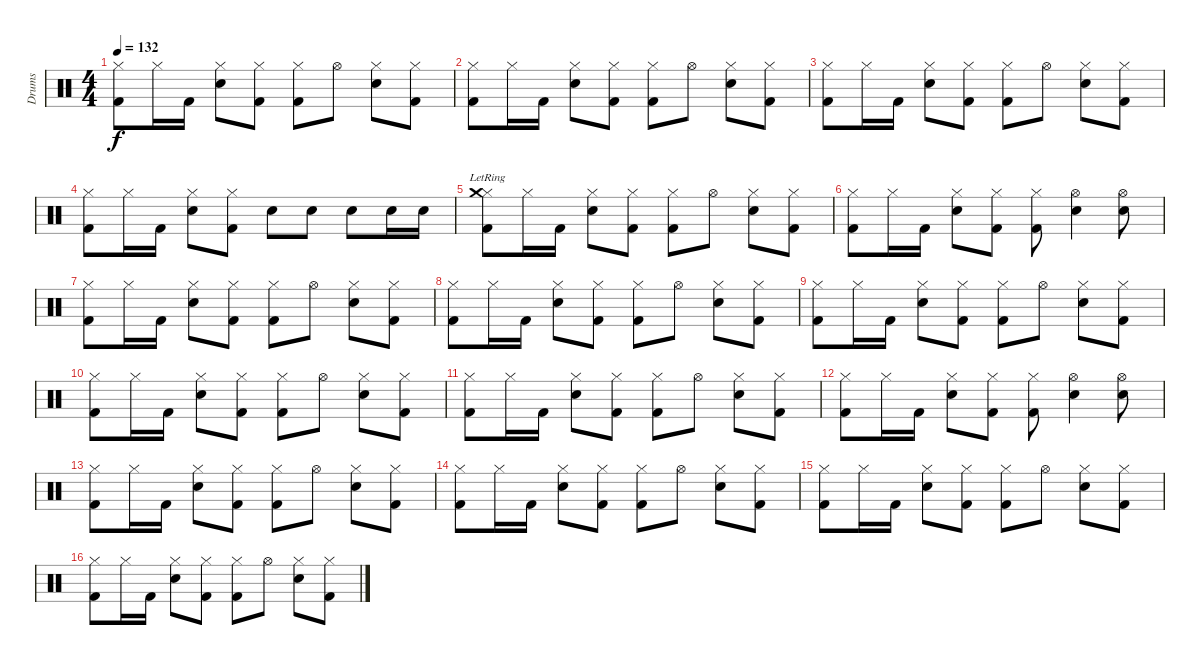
\track ("Drums" "Drums") {instrument percussion}
\staff {score}
\articulation defaults
\ts (4 4)
\tempo 132
\clef neutral
\ks c
("Kick (hit) 2" "Hi-Hat (closed)").8{dy f} "Hi-Hat (closed)".16 "Kick (hit) 2".16 ("Electric Snare (hit)" "Hi-Hat (closed)").8 ("Kick (hit) 2" "Hi-Hat (closed)").8 ("Kick (hit) 2" "Hi-Hat (closed)").8 "Hi-Hat (open)".8 ("Electric Snare (hit)" "Hi-Hat (closed)").8 ("Kick (hit) 2" "Hi-Hat (closed)").8 |
("Kick (hit) 2" "Hi-Hat (closed)").8 "Hi-Hat (closed)".16 "Kick (hit) 2".16 ("Electric Snare (hit)" "Hi-Hat (closed)").8 ("Kick (hit) 2" "Hi-Hat (closed)").8 ("Kick (hit) 2" "Hi-Hat (closed)").8 "Hi-Hat (open)".8 ("Electric Snare (hit)" "Hi-Hat (closed)").8 ("Kick (hit) 2" "Hi-Hat (closed)").8 |
("Kick (hit) 2" "Hi-Hat (closed)").8 "Hi-Hat (closed)".16 "Kick (hit) 2".16 ("Electric Snare (hit)" "Hi-Hat (closed)").8 ("Kick (hit) 2" "Hi-Hat (closed)").8 ("Kick (hit) 2" "Hi-Hat (closed)").8 "Hi-Hat (open)".8 ("Electric Snare (hit)" "Hi-Hat (closed)").8 ("Kick (hit) 2" "Hi-Hat (closed)").8 |
("Kick (hit) 2" "Hi-Hat (closed)").8 "Hi-Hat (closed)".16 "Kick (hit) 2".16 ("Electric Snare (hit)" "Hi-Hat (closed)").8 ("Kick (hit) 2" "Hi-Hat (closed)").8 "Electric Snare (hit)".8 "Electric Snare (hit)".8 "Electric Snare (hit)".8 "Electric Snare (hit)".16 "Electric Snare (hit)".16 |
("Kick (hit) 2" "Hi-Hat (closed)" "Crash medium (hit)"{lr}).8 "Hi-Hat (closed)".16 "Kick (hit) 2".16 ("Electric Snare (hit)" "Hi-Hat (closed)").8 ("Kick (hit) 2" "Hi-Hat (closed)").8 ("Kick (hit) 2" "Hi-Hat (closed)").8 "Hi-Hat (open)".8 ("Electric Snare (hit)" "Hi-Hat (closed)").8 ("Kick (hit) 2" "Hi-Hat (closed)").8 |
("Kick (hit) 2" "Hi-Hat (closed)").8 "Hi-Hat (closed)".16 "Kick (hit) 2".16 ("Electric Snare (hit)" "Hi-Hat (closed)").8 ("Kick (hit) 2" "Hi-Hat (closed)").8 ("Kick (hit) 2" "Hi-Hat (closed)").8 ("Electric Snare (hit)" "Hi-Hat (open)").4 ("Electric Snare (hit)" "Hi-Hat (open)").8 |
("Kick (hit) 2" "Hi-Hat (closed)").8 "Hi-Hat (closed)".16 "Kick (hit) 2".16 ("Electric Snare (hit)" "Hi-Hat (closed)").8 ("Kick (hit) 2" "Hi-Hat (closed)").8 ("Kick (hit) 2" "Hi-Hat (closed)").8 "Hi-Hat (open)".8 ("Electric Snare (hit)" "Hi-Hat (closed)").8 ("Kick (hit) 2" "Hi-Hat (closed)").8 |
("Kick (hit) 2" "Hi-Hat (closed)").8 "Hi-Hat (closed)".16 "Kick (hit) 2".16 ("Electric Snare (hit)" "Hi-Hat (closed)").8 ("Kick (hit) 2" "Hi-Hat (closed)").8 ("Kick (hit) 2" "Hi-Hat (closed)").8 "Hi-Hat (open)".8 ("Electric Snare (hit)" "Hi-Hat (closed)").8 ("Kick (hit) 2" "Hi-Hat (closed)").8 |
("Kick (hit) 2" "Hi-Hat (closed)").8 "Hi-Hat (closed)".16 "Kick (hit) 2".16 ("Electric Snare (hit)" "Hi-Hat (closed)").8 ("Kick (hit) 2" "Hi-Hat (closed)").8 ("Kick (hit) 2" "Hi-Hat (closed)").8 "Hi-Hat (open)".8 ("Electric Snare (hit)" "Hi-Hat (closed)").8 ("Kick (hit) 2" "Hi-Hat (closed)").8 |
("Kick (hit) 2" "Hi-Hat (closed)").8 "Hi-Hat (closed)".16 "Kick (hit) 2".16 ("Electric Snare (hit)" "Hi-Hat (closed)").8 ("Kick (hit) 2" "Hi-Hat (closed)").8 ("Kick (hit) 2" "Hi-Hat (closed)").8 "Hi-Hat (open)".8 ("Electric Snare (hit)" "Hi-Hat (closed)").8 ("Kick (hit) 2" "Hi-Hat (closed)").8 |
("Kick (hit) 2" "Hi-Hat (closed)").8 "Hi-Hat (closed)".16 "Kick (hit) 2".16 ("Electric Snare (hit)" "Hi-Hat (closed)").8 ("Kick (hit) 2" "Hi-Hat (closed)").8 ("Kick (hit) 2" "Hi-Hat (closed)").8 "Hi-Hat (open)".8 ("Electric Snare (hit)" "Hi-Hat (closed)").8 ("Kick (hit) 2" "Hi-Hat (closed)").8 |
("Kick (hit) 2" "Hi-Hat (closed)").8 "Hi-Hat (closed)".16 "Kick (hit) 2".16 ("Electric Snare (hit)" "Hi-Hat (closed)").8 ("Kick (hit) 2" "Hi-Hat (closed)").8 ("Kick (hit) 2" "Hi-Hat (closed)").8 ("Electric Snare (hit)" "Hi-Hat (open)").4 ("Electric Snare (hit)" "Hi-Hat (open)").8 |
("Kick (hit) 2" "Hi-Hat (closed)").8 "Hi-Hat (closed)".16 "Kick (hit) 2".16 ("Electric Snare (hit)" "Hi-Hat (closed)").8 ("Kick (hit) 2" "Hi-Hat (closed)").8 ("Kick (hit) 2" "Hi-Hat (closed)").8 "Hi-Hat (open)".8 ("Electric Snare (hit)" "Hi-Hat (closed)").8 ("Kick (hit) 2" "Hi-Hat (closed)").8 |
("Kick (hit) 2" "Hi-Hat (closed)").8 "Hi-Hat (closed)".16 "Kick (hit) 2".16 ("Electric Snare (hit)" "Hi-Hat (closed)").8 ("Kick (hit) 2" "Hi-Hat (closed)").8 ("Kick (hit) 2" "Hi-Hat (closed)").8 "Hi-Hat (open)".8 ("Electric Snare (hit)" "Hi-Hat (closed)").8 ("Kick (hit) 2" "Hi-Hat (closed)").8 |
("Kick (hit) 2" "Hi-Hat (closed)").8 "Hi-Hat (closed)".16 "Kick (hit) 2".16 ("Electric Snare (hit)" "Hi-Hat (closed)").8 ("Kick (hit) 2" "Hi-Hat (closed)").8 ("Kick (hit) 2" "Hi-Hat (closed)").8 "Hi-Hat (open)".8 ("Electric Snare (hit)" "Hi-Hat (closed)").8 ("Kick (hit) 2" "Hi-Hat (closed)").8 |
("Kick (hit) 2" "Hi-Hat (closed)").8 "Hi-Hat (closed)".16 "Kick (hit) 2".16 ("Electric Snare (hit)" "Hi-Hat (closed)").8 ("Kick (hit) 2" "Hi-Hat (closed)").8 ("Kick (hit) 2" "Hi-Hat (closed)").8 "Hi-Hat (open)".8 ("Electric Snare (hit)" "Hi-Hat (closed)").8 ("Kick (hit) 2" "Hi-Hat (closed)").8
